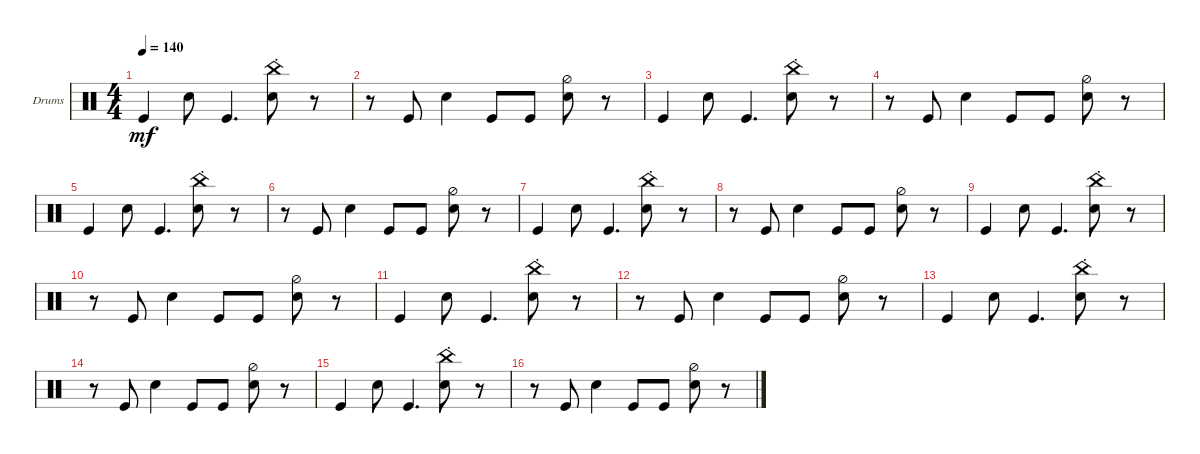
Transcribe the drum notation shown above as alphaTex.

\defaultSystemsLayout 4
\bracketExtendMode groupsimilarinstruments
\firstSystemTrackNameOrientation horizontal
\otherSystemsTrackNameOrientation horizontal
\track ("Drumkit" "Drums") {instrument percussion}
\staff {score}
\articulation defaults
\ts (4 4)
\tempo 140
\clef neutral
\ks c "Kick (hit)".4{dy mf} "Snare (hit) 2".8 "Kick (hit)".4{d}
("Snare (hit) 2" "China (hit)"{st}).8 r.8 |
r.8 "Kick (hit)".8 "Snare (hit) 2".4 "Kick (hit)".8 "Kick (hit)".8 ("Snare (hit) 2" "Hi-Hat (half)").8 r.8 |
"Kick (hit)".4 "Snare (hit) 2".8 "Kick (hit)".4{d} ("Snare (hit) 2" "China (hit)"{st}).8 r.8 |
r.8 "Kick (hit)".8 "Snare (hit) 2".4 "Kick (hit)".8 "Kick (hit)".8 ("Snare (hit) 2" "Hi-Hat (half)").8 r.8 |
"Kick (hit)".4 "Snare (hit) 2".8 "Kick (hit)".4{d} ("Snare (hit) 2" "China (hit)"{st}).8 r.8 |
r.8 "Kick (hit)".8 "Snare (hit) 2".4 "Kick (hit)".8 "Kick (hit)".8 ("Snare (hit) 2" "Hi-Hat (half)").8 r.8 |
"Kick (hit)".4 "Snare (hit) 2".8 "Kick (hit)".4{d} ("Snare (hit) 2" "China (hit)"{st}).8 r.8 |
r.8 "Kick (hit)".8 "Snare (hit) 2".4 "Kick (hit)".8 "Kick (hit)".8 ("Snare (hit) 2" "Hi-Hat (half)").8 r.8 |
"Kick (hit)".4 "Snare (hit) 2".8 "Kick (hit)".4{d} ("Snare (hit) 2" "China (hit)"{st}).8 r.8 |
r.8 "Kick (hit)".8 "Snare (hit) 2".4 "Kick (hit)".8 "Kick (hit)".8 ("Snare (hit) 2" "Hi-Hat (half)").8 r.8 |
"Kick (hit)".4 "Snare (hit) 2".8 "Kick (hit)".4{d} ("Snare (hit) 2" "China (hit)"{st}).8 r.8 |
r.8 "Kick (hit)".8 "Snare (hit) 2".4 "Kick (hit)".8 "Kick (hit)".8 ("Snare (hit) 2" "Hi-Hat (half)").8 r.8 |
"Kick (hit)".4 "Snare (hit) 2".8 "Kick (hit)".4{d} ("Snare (hit) 2" "China (hit)"{st}).8 r.8 |
r.8 "Kick (hit)".8 "Snare (hit) 2".4 "Kick (hit)".8 "Kick (hit)".8 ("Snare (hit) 2" "Hi-Hat (half)").8 r.8 |
"Kick (hit)".4 "Snare (hit) 2".8 "Kick (hit)".4{d} ("Snare (hit) 2" "China (hit)"{st}).8 r.8 |
r.8 "Kick (hit)".8 "Snare (hit) 2".4 "Kick (hit)".8 "Kick (hit)".8 ("Snare (hit) 2" "Hi-Hat (half)").8 r.8
